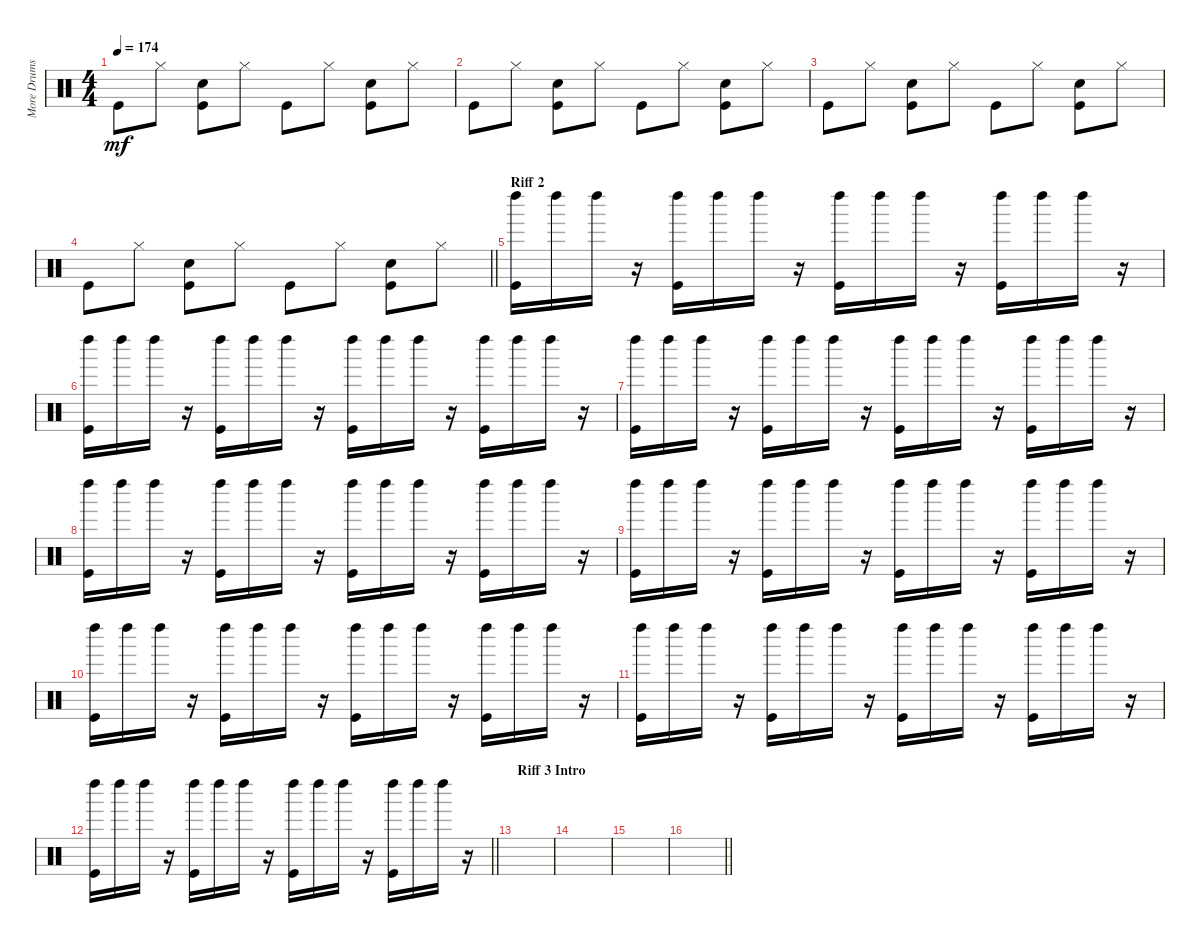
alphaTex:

\track ("More Drums" "More Drums") {instrument percussion}
\staff {score}
\articulation defaults
\ts (4 4)
\tempo 174
\clef neutral
\ks c "Kick (hit)".8{dy mf} "Hi-Hat (closed)".8
("Kick (hit)" "Electric Snare (hit)").8 "Hi-Hat (closed)".8 "Kick (hit)".8 "Hi-Hat (closed)".8 ("Kick (hit)" "Electric Snare (hit)").8 "Hi-Hat (closed)".8 |
"Kick (hit)".8 "Hi-Hat (closed)".8 ("Kick (hit)" "Electric Snare (hit)").8 "Hi-Hat (closed)".8 "Kick (hit)".8 "Hi-Hat (closed)".8 ("Kick (hit)" "Electric Snare (hit)").8 "Hi-Hat (closed)".8 |
"Kick (hit)".8 "Hi-Hat (closed)".8 ("Kick (hit)" "Electric Snare (hit)").8 "Hi-Hat (closed)".8 "Kick (hit)".8 "Hi-Hat (closed)".8 ("Kick (hit)" "Electric Snare (hit)").8 "Hi-Hat (closed)".8 |
\barLineRight lightlight "Kick (hit)".8 "Hi-Hat (closed)".8
("Kick (hit)" "Electric Snare (hit)").8 "Hi-Hat (closed)".8 "Kick (hit)".8 "Hi-Hat (closed)".8 ("Kick (hit)" "Electric Snare (hit)").8 "Hi-Hat (closed)".8 |
\section ("" "Riff 2")
("Kick (hit)" "Left Maraca (hit)").16 "Left Maraca (hit)".16 "Left Maraca (hit)".16 r.16 ("Kick (hit)" "Left Maraca (hit)").16 "Left Maraca (hit)".16 "Left Maraca (hit)".16 r.16 ("Kick (hit)" "Left Maraca (hit)").16 "Left Maraca (hit)".16 "Left Maraca (hit)".16 r.16 ("Kick (hit)" "Left Maraca (hit)").16 "Left Maraca (hit)".16 "Left Maraca (hit)".16 r.16 |
("Kick (hit)" "Left Maraca (hit)").16 "Left Maraca (hit)".16 "Left Maraca (hit)".16 r.16 ("Kick (hit)" "Left Maraca (hit)").16 "Left Maraca (hit)".16 "Left Maraca (hit)".16 r.16 ("Kick (hit)" "Left Maraca (hit)").16 "Left Maraca (hit)".16 "Left Maraca (hit)".16 r.16 ("Kick (hit)" "Left Maraca (hit)").16 "Left Maraca (hit)".16 "Left Maraca (hit)".16 r.16 |
("Kick (hit)" "Left Maraca (hit)").16 "Left Maraca (hit)".16 "Left Maraca (hit)".16 r.16 ("Kick (hit)" "Left Maraca (hit)").16 "Left Maraca (hit)".16 "Left Maraca (hit)".16 r.16 ("Kick (hit)" "Left Maraca (hit)").16 "Left Maraca (hit)".16 "Left Maraca (hit)".16 r.16 ("Kick (hit)" "Left Maraca (hit)").16 "Left Maraca (hit)".16 "Left Maraca (hit)".16 r.16 |
("Kick (hit)" "Left Maraca (hit)").16 "Left Maraca (hit)".16 "Left Maraca (hit)".16 r.16 ("Kick (hit)" "Left Maraca (hit)").16 "Left Maraca (hit)".16 "Left Maraca (hit)".16 r.16 ("Kick (hit)" "Left Maraca (hit)").16 "Left Maraca (hit)".16 "Left Maraca (hit)".16 r.16 ("Kick (hit)" "Left Maraca (hit)").16 "Left Maraca (hit)".16 "Left Maraca (hit)".16 r.16 |
("Kick (hit)" "Left Maraca (hit)").16 "Left Maraca (hit)".16 "Left Maraca (hit)".16 r.16 ("Kick (hit)" "Left Maraca (hit)").16 "Left Maraca (hit)".16 "Left Maraca (hit)".16 r.16 ("Kick (hit)" "Left Maraca (hit)").16 "Left Maraca (hit)".16 "Left Maraca (hit)".16 r.16 ("Kick (hit)" "Left Maraca (hit)").16 "Left Maraca (hit)".16 "Left Maraca (hit)".16 r.16 |
("Kick (hit)" "Left Maraca (hit)").16 "Left Maraca (hit)".16 "Left Maraca (hit)".16 r.16 ("Kick (hit)" "Left Maraca (hit)").16 "Left Maraca (hit)".16 "Left Maraca (hit)".16 r.16 ("Kick (hit)" "Left Maraca (hit)").16 "Left Maraca (hit)".16 "Left Maraca (hit)".16 r.16 ("Kick (hit)" "Left Maraca (hit)").16 "Left Maraca (hit)".16 "Left Maraca (hit)".16 r.16 |
("Kick (hit)" "Left Maraca (hit)").16 "Left Maraca (hit)".16 "Left Maraca (hit)".16 r.16 ("Kick (hit)" "Left Maraca (hit)").16 "Left Maraca (hit)".16 "Left Maraca (hit)".16 r.16 ("Kick (hit)" "Left Maraca (hit)").16 "Left Maraca (hit)".16 "Left Maraca (hit)".16 r.16 ("Kick (hit)" "Left Maraca (hit)").16 "Left Maraca (hit)".16 "Left Maraca (hit)".16 r.16 |
\barLineRight lightlight
("Kick (hit)" "Left Maraca (hit)").16 "Left Maraca (hit)".16 "Left Maraca (hit)".16 r.16 ("Kick (hit)" "Left Maraca (hit)").16 "Left Maraca (hit)".16 "Left Maraca (hit)".16 r.16 ("Kick (hit)" "Left Maraca (hit)").16 "Left Maraca (hit)".16 "Left Maraca (hit)".16 r.16 ("Kick (hit)" "Left Maraca (hit)").16 "Left Maraca (hit)".16 "Left Maraca (hit)".16 r.16 |
\section ("" "Riff 3 Intro")
|
|
|
\barLineRight lightlight
